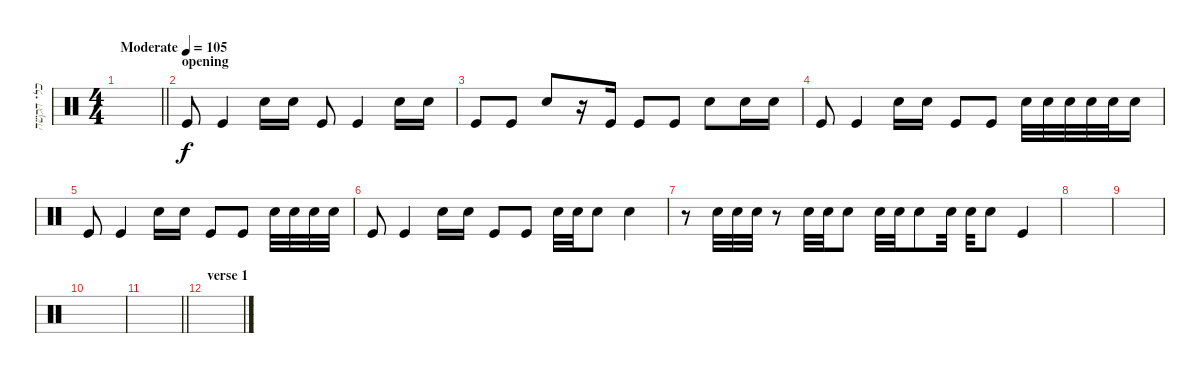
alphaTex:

\track ("כלי הקשה" "כלי הקשה") {instrument percussion bank 45}
\staff {score}
\articulation defaults
\ts (4 4)
\tempo (105 "Moderate")
\clef neutral
\barLineRight lightlight
\ks c
|
\section ("" "opening")
"Kick (hit)".8 "Kick (hit)".4 "Electric Snare (hit)".16 "Electric Snare (hit)".16 "Kick (hit)".8 "Kick (hit)".4 "Snare (hit) 2".16 "Snare (hit) 2".16 |
"Kick (hit)".8 "Kick (hit)".8 "Electric Snare (hit)".8 r.16 "Kick (hit)".16 "Kick (hit)".8 "Kick (hit)".8 "Electric Snare (hit)".8 "Electric Snare (hit)".16 "Electric Snare (hit)".16 |
"Kick (hit)".8 "Kick (hit)".4 "Electric Snare (hit)".16 "Electric Snare (hit)".16 "Kick (hit)".8 "Kick (hit)".8 "Snare (hit) 2".32 "Snare (hit) 2".32 "Snare (hit) 2".32 "Snare (hit) 2".32 "Snare (hit) 2".32 "Snare (hit) 2".16 |
"Kick (hit)".8 "Kick (hit)".4 "Electric Snare (hit)".16 "Electric Snare (hit)".16 "Kick (hit)".8 "Kick (hit)".8 "Electric Snare (hit)".32 "Electric Snare (hit)".32 "Electric Snare (hit)".32 "Electric Snare (hit)".32 |
"Kick (hit)".8 "Kick (hit)".4 "Electric Snare (hit)".16 "Electric Snare (hit)".16 "Kick (hit)".8 "Kick (hit)".8 "Snare (hit) 2".32 "Snare (hit) 2".32 "Snare (hit) 2".8 "Snare (hit) 2".4 |
r.8 "Snare (hit) 2".32 "Snare (hit) 2".32 "Snare (hit) 2".32 r.8 "Snare (hit) 2".32 "Snare (hit) 2".32 "Snare (hit) 2".8 "Snare (hit) 2".32 "Snare (hit) 2".32 "Snare (hit) 2".8 "Snare (hit) 2".32 "Snare (hit) 2".32 "Snare (hit) 2".8 "Kick (hit)".4 |
|
|
|
\barLineRight lightlight
|
\section ("" "verse 1")
